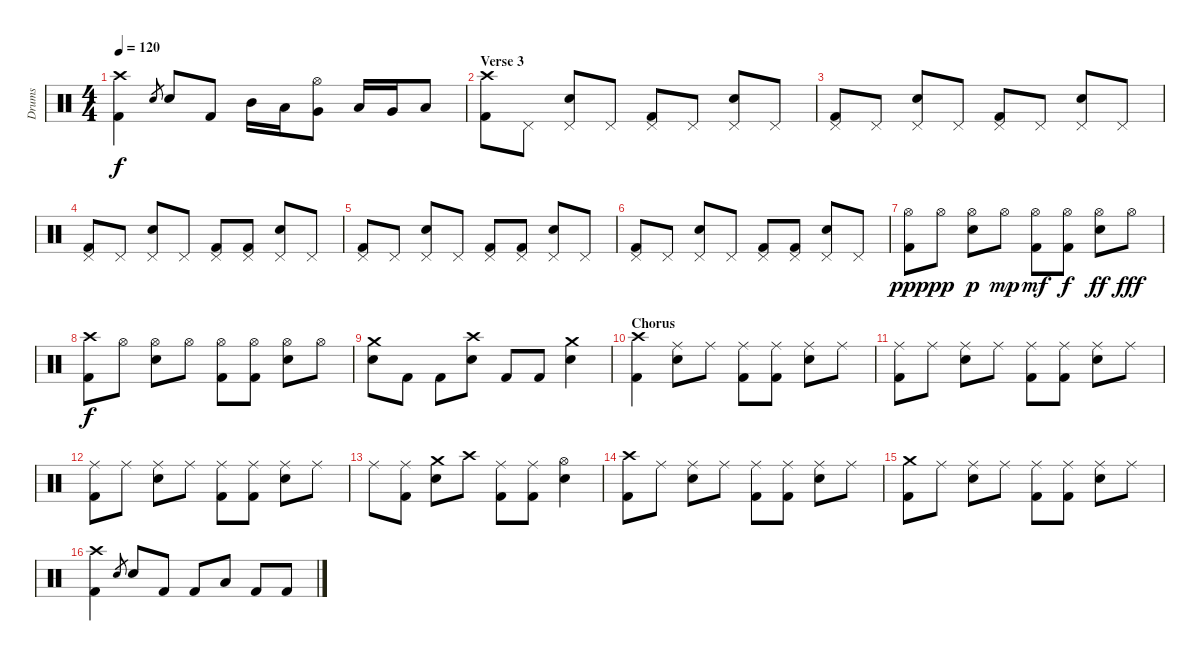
\track ("Drums" "Drums") {instrument percussion}
\staff {score}
\articulation defaults
\ts (4 4)
\tempo 120
\clef neutral
\ks c
("Crash high (hit)" "Kick (hit) 2").4{dy f} "Electric Snare (hit)".8{gr} "Electric Snare (hit)".8 "Kick (hit) 2".8 "Mid Tom (hit)".16 "Low Tom (hit)".16 ("Hi-Hat (open)" "Very Low Tom (hit)").8 "Low Tom (hit)".16 "Very Low Tom (hit)".16 "Low Floor Tom (hit)".8 |
\section ("" "Verse 3")
("Crash high (hit)" "Kick (hit) 2").8 "Pedal Hi-Hat (hit)".8 ("Pedal Hi-Hat (hit)" "Electric Snare (hit)").8 "Pedal Hi-Hat (hit)".8 ("Pedal Hi-Hat (hit)" "Kick (hit) 2").8 "Pedal Hi-Hat (hit)".8 ("Pedal Hi-Hat (hit)" "Electric Snare (hit)").8 "Pedal Hi-Hat (hit)".8 |
("Pedal Hi-Hat (hit)" "Kick (hit) 2").8 "Pedal Hi-Hat (hit)".8 ("Pedal Hi-Hat (hit)" "Electric Snare (hit)").8 "Pedal Hi-Hat (hit)".8 ("Pedal Hi-Hat (hit)" "Kick (hit) 2").8 "Pedal Hi-Hat (hit)".8 ("Pedal Hi-Hat (hit)" "Electric Snare (hit)").8 "Pedal Hi-Hat (hit)".8 |
("Pedal Hi-Hat (hit)" "Kick (hit) 2").8 "Pedal Hi-Hat (hit)".8 ("Pedal Hi-Hat (hit)" "Electric Snare (hit)").8 "Pedal Hi-Hat (hit)".8 ("Pedal Hi-Hat (hit)" "Kick (hit) 2").8 ("Pedal Hi-Hat (hit)" "Kick (hit) 2").8 ("Pedal Hi-Hat (hit)" "Electric Snare (hit)").8 "Pedal Hi-Hat (hit)".8 |
("Pedal Hi-Hat (hit)" "Kick (hit) 2").8 "Pedal Hi-Hat (hit)".8 ("Pedal Hi-Hat (hit)" "Electric Snare (hit)").8 "Pedal Hi-Hat (hit)".8 ("Pedal Hi-Hat (hit)" "Kick (hit) 2").8 ("Pedal Hi-Hat (hit)" "Kick (hit) 2").8 ("Pedal Hi-Hat (hit)" "Electric Snare (hit)").8 "Pedal Hi-Hat (hit)".8 |
("Pedal Hi-Hat (hit)" "Kick (hit) 2").8 "Pedal Hi-Hat (hit)".8 ("Pedal Hi-Hat (hit)" "Electric Snare (hit)").8 "Pedal Hi-Hat (hit)".8 ("Pedal Hi-Hat (hit)" "Kick (hit) 2").8 ("Pedal Hi-Hat (hit)" "Kick (hit) 2").8 ("Pedal Hi-Hat (hit)" "Electric Snare (hit)").8 "Pedal Hi-Hat (hit)".8 |
("Hi-Hat (open)" "Kick (hit) 2").8{dy ppp} "Hi-Hat (open)".8{dy pp} ("Hi-Hat (open)" "Electric Snare (hit)").8{dy p} "Hi-Hat (open)".8{dy mp} ("Hi-Hat (open)" "Kick (hit) 2").8{dy mf} ("Hi-Hat (open)" "Kick (hit) 2").8{dy f} ("Hi-Hat (open)" "Electric Snare (hit)").8{dy ff} "Hi-Hat (open)".8{dy fff} |
("Crash high (hit)" "Kick (hit) 2").8{dy f} "Hi-Hat (open)".8 ("Hi-Hat (open)" "Electric Snare (hit)").8 "Hi-Hat (open)".8 ("Hi-Hat (open)" "Kick (hit) 2").8 ("Hi-Hat (open)" "Kick (hit) 2").8 ("Hi-Hat (open)" "Electric Snare (hit)").8 "Hi-Hat (open)".8 |
("Crash medium (hit)" "Electric Snare (hit)").8 "Kick (hit) 2".8 "Kick (hit) 2".8 ("Crash high (hit)" "Electric Snare (hit)").8 "Kick (hit) 2".8 "Kick (hit) 2".8 ("Crash medium (hit)" "Electric Snare (hit)").4 |
\section ("" "Chorus")
("Crash high (hit)" "Kick (hit) 2").4 ("Ride (middle)" "Electric Snare (hit)").8 "Ride (middle)".8 ("Ride (middle)" "Kick (hit) 2").8 ("Ride (middle)" "Kick (hit) 2").8 ("Ride (middle)" "Electric Snare (hit)").8 "Ride (middle)".8 |
("Ride (middle)" "Kick (hit) 2").8 "Ride (middle)".8 ("Ride (middle)" "Electric Snare (hit)").8 "Ride (middle)".8 ("Ride (middle)" "Kick (hit) 2").8 ("Ride (middle)" "Kick (hit) 2").8 ("Ride (middle)" "Electric Snare (hit)").8 "Ride (middle)".8 |
("Ride (middle)" "Kick (hit) 2").8 "Ride (middle)".8 ("Ride (middle)" "Electric Snare (hit)").8 "Ride (middle)".8 ("Ride (middle)" "Kick (hit) 2").8 ("Ride (middle)" "Kick (hit) 2").8 ("Ride (middle)" "Electric Snare (hit)").8 "Ride (middle)".8 |
"Ride (middle)".8 ("Ride (middle)" "Kick (hit) 2").8 ("Crash medium (hit)" "Electric Snare (hit)").8 "Crash high (hit)".8 ("Ride (middle)" "Kick (hit) 2").8 ("Ride (middle)" "Kick (hit) 2").8 ("Hi-Hat (open)" "Electric Snare (hit)").4 |
("Crash high (hit)" "Kick (hit) 2").8 "Ride (middle)".8 ("Ride (middle)" "Electric Snare (hit)").8 "Ride (middle)".8 ("Ride (middle)" "Kick (hit) 2").8 ("Ride (middle)" "Kick (hit) 2").8 ("Ride (middle)" "Electric Snare (hit)").8 "Ride (middle)".8 |
("Crash medium (hit)" "Kick (hit) 2").8 "Ride (middle)".8 ("Ride (middle)" "Electric Snare (hit)").8 "Ride (middle)".8 ("Ride (middle)" "Kick (hit) 2").8 ("Ride (middle)" "Kick (hit) 2").8 ("Ride (middle)" "Electric Snare (hit)").8 "Ride (middle)".8 |
("Crash high (hit)" "Kick (hit) 2").4 "Electric Snare (hit)".8{gr} "Electric Snare (hit)".8 "Kick (hit) 2".8 "Kick (hit) 2".8 "Low Floor Tom (hit)".8 "Kick (hit) 2".8 "Kick (hit) 2".8
